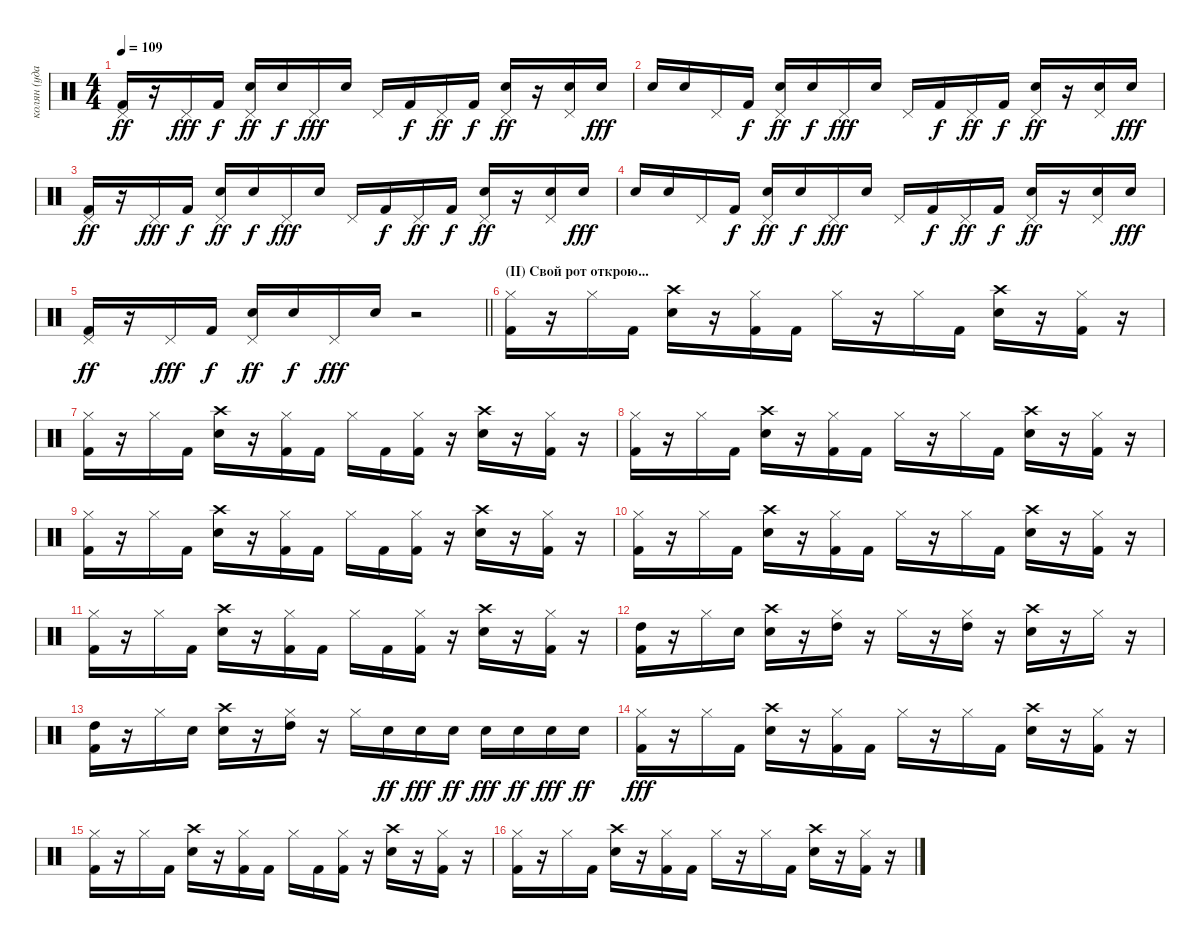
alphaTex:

\track ("колян (ударные) v2.0" "колян (уда") {instrument percussion}
\staff
\articulation defaults
\ts (4 4)
\tempo 109
\clef neutral
\ks c
("Pedal Hi-Hat (hit)" "Kick (hit) 2").16{dy ff} r.16 "Pedal Hi-Hat (hit)".16{dy fff} "Kick (hit) 2".16{dy f} ("Snare (hit) 2" "Pedal Hi-Hat (hit)").16{dy ff} "Snare (hit) 2".16{dy f} "Pedal Hi-Hat (hit)".16{dy fff} "Snare (hit) 2".16 "Pedal Hi-Hat (hit)".16 "Kick (hit) 2".16{dy f} "Pedal Hi-Hat (hit)".16{dy ff} "Kick (hit) 2".16{dy f} ("Snare (hit) 2" "Pedal Hi-Hat (hit)").16{dy ff} r.16 ("Snare (hit) 2" "Pedal Hi-Hat (hit)").16 "Snare (hit) 2".16{dy fff} |
"Snare (hit) 2".16 "Snare (hit) 2".16 "Pedal Hi-Hat (hit)".16 "Kick (hit) 2".16{dy f} ("Snare (hit) 2" "Pedal Hi-Hat (hit)").16{dy ff} "Snare (hit) 2".16{dy f} "Pedal Hi-Hat (hit)".16{dy fff} "Snare (hit) 2".16 "Pedal Hi-Hat (hit)".16 "Kick (hit) 2".16{dy f} "Pedal Hi-Hat (hit)".16{dy ff} "Kick (hit) 2".16{dy f} ("Snare (hit) 2" "Pedal Hi-Hat (hit)").16{dy ff} r.16 ("Snare (hit) 2" "Pedal Hi-Hat (hit)").16 "Snare (hit) 2".16{dy fff} |
("Pedal Hi-Hat (hit)" "Kick (hit) 2").16{dy ff} r.16 "Pedal Hi-Hat (hit)".16{dy fff} "Kick (hit) 2".16{dy f} ("Snare (hit) 2" "Pedal Hi-Hat (hit)").16{dy ff} "Snare (hit) 2".16{dy f} "Pedal Hi-Hat (hit)".16{dy fff} "Snare (hit) 2".16 "Pedal Hi-Hat (hit)".16 "Kick (hit) 2".16{dy f} "Pedal Hi-Hat (hit)".16{dy ff} "Kick (hit) 2".16{dy f} ("Snare (hit) 2" "Pedal Hi-Hat (hit)").16{dy ff} r.16 ("Snare (hit) 2" "Pedal Hi-Hat (hit)").16 "Snare (hit) 2".16{dy fff} |
"Snare (hit) 2".16 "Snare (hit) 2".16 "Pedal Hi-Hat (hit)".16 "Kick (hit) 2".16{dy f} ("Snare (hit) 2" "Pedal Hi-Hat (hit)").16{dy ff} "Snare (hit) 2".16{dy f} "Pedal Hi-Hat (hit)".16{dy fff} "Snare (hit) 2".16 "Pedal Hi-Hat (hit)".16 "Kick (hit) 2".16{dy f} "Pedal Hi-Hat (hit)".16{dy ff} "Kick (hit) 2".16{dy f} ("Snare (hit) 2" "Pedal Hi-Hat (hit)").16{dy ff} r.16 ("Snare (hit) 2" "Pedal Hi-Hat (hit)").16 "Snare (hit) 2".16{dy fff} |
\barLineRight lightlight
("Pedal Hi-Hat (hit)" "Kick (hit) 2").16{dy ff} r.16 "Pedal Hi-Hat (hit)".16{dy fff} "Kick (hit) 2".16{dy f} ("Snare (hit) 2" "Pedal Hi-Hat (hit)").16{dy ff} "Snare (hit) 2".16{dy f} "Pedal Hi-Hat (hit)".16{dy fff} "Snare (hit) 2".16 r.2 |
\section ("" "(II) Свой рот открою...")
("Hi-Hat (closed)" "Kick (hit) 2").16 r.16 "Hi-Hat (closed)".16 "Kick (hit) 2".16 ("Snare (hit) 2" "Crash high (hit)").16 r.16 ("Hi-Hat (closed)" "Kick (hit) 2").16 "Kick (hit) 2".16 "Hi-Hat (closed)".16 r.16 "Hi-Hat (closed)".16 "Kick (hit) 2".16 ("Snare (hit) 2" "Crash high (hit)").16 r.16 ("Hi-Hat (closed)" "Kick (hit) 2").16 r.16 |
("Hi-Hat (closed)" "Kick (hit) 2").16 r.16 "Hi-Hat (closed)".16 "Kick (hit) 2".16 ("Snare (hit) 2" "Crash high (hit)").16 r.16 ("Hi-Hat (closed)" "Kick (hit) 2").16 "Kick (hit) 2".16 "Hi-Hat (closed)".16 "Kick (hit) 2".16 ("Hi-Hat (closed)" "Kick (hit) 2").16 r.16 ("Snare (hit) 2" "Crash high (hit)").16 r.16 ("Hi-Hat (closed)" "Kick (hit) 2").16 r.16 |
("Hi-Hat (closed)" "Kick (hit) 2").16 r.16 "Hi-Hat (closed)".16 "Kick (hit) 2".16 ("Snare (hit) 2" "Crash high (hit)").16 r.16 ("Hi-Hat (closed)" "Kick (hit) 2").16 "Kick (hit) 2".16 "Hi-Hat (closed)".16 r.16 "Hi-Hat (closed)".16 "Kick (hit) 2".16 ("Snare (hit) 2" "Crash high (hit)").16 r.16 ("Hi-Hat (closed)" "Kick (hit) 2").16 r.16 |
("Hi-Hat (closed)" "Kick (hit) 2").16 r.16 "Hi-Hat (closed)".16 "Kick (hit) 2".16 ("Snare (hit) 2" "Crash high (hit)").16 r.16 ("Hi-Hat (closed)" "Kick (hit) 2").16 "Kick (hit) 2".16 "Hi-Hat (closed)".16 "Kick (hit) 2".16 ("Hi-Hat (closed)" "Kick (hit) 2").16 r.16 ("Snare (hit) 2" "Crash high (hit)").16 r.16 ("Hi-Hat (closed)" "Kick (hit) 2").16 r.16 |
("Hi-Hat (closed)" "Kick (hit) 2").16 r.16 "Hi-Hat (closed)".16 "Kick (hit) 2".16 ("Snare (hit) 2" "Crash high (hit)").16 r.16 ("Hi-Hat (closed)" "Kick (hit) 2").16 "Kick (hit) 2".16 "Hi-Hat (closed)".16 r.16 "Hi-Hat (closed)".16 "Kick (hit) 2".16 ("Snare (hit) 2" "Crash high (hit)").16 r.16 ("Hi-Hat (closed)" "Kick (hit) 2").16 r.16 |
("Hi-Hat (closed)" "Kick (hit) 2").16 r.16 "Hi-Hat (closed)".16 "Kick (hit) 2".16 ("Snare (hit) 2" "Crash high (hit)").16 r.16 ("Hi-Hat (closed)" "Kick (hit) 2").16 "Kick (hit) 2".16 "Hi-Hat (closed)".16 "Kick (hit) 2".16 ("Hi-Hat (closed)" "Kick (hit) 2").16 r.16 ("Snare (hit) 2" "Crash high (hit)").16 r.16 ("Hi-Hat (closed)" "Kick (hit) 2").16 r.16 |
("High Tom (hit)" "Kick (hit) 2").16 r.16 "Hi-Hat (closed)".16 "Electric Snare (hit)".16 ("Electric Snare (hit)" "Crash high (hit)").16 r.16 ("Hi-Hat (closed)" "High Tom (hit)").16 r.16 "Hi-Hat (closed)".16 r.16 ("Hi-Hat (closed)" "High Tom (hit)").16 r.16 ("Electric Snare (hit)" "Crash high (hit)").16 r.16 "Hi-Hat (closed)".16 r.16 |
("High Tom (hit)" "Kick (hit) 2").16 r.16 "Hi-Hat (closed)".16 "Electric Snare (hit)".16 ("Electric Snare (hit)" "Crash high (hit)").16 r.16 ("Hi-Hat (closed)" "High Tom (hit)").16 r.16 "Hi-Hat (closed)".16 "Electric Snare (hit)".16{dy ff} "Electric Snare (hit)".16{dy fff} "Electric Snare (hit)".16{dy ff} "Electric Snare (hit)".16{dy fff} "Electric Snare (hit)".16{dy ff} "Electric Snare (hit)".16{dy fff} "Electric Snare (hit)".16{dy ff} |
("Hi-Hat (closed)" "Kick (hit) 2").16{dy fff} r.16 "Hi-Hat (closed)".16 "Kick (hit) 2".16 ("Snare (hit) 2" "Crash high (hit)").16 r.16 ("Hi-Hat (closed)" "Kick (hit) 2").16 "Kick (hit) 2".16 "Hi-Hat (closed)".16 r.16 "Hi-Hat (closed)".16 "Kick (hit) 2".16 ("Snare (hit) 2" "Crash high (hit)").16 r.16 ("Hi-Hat (closed)" "Kick (hit) 2").16 r.16 |
("Hi-Hat (closed)" "Kick (hit) 2").16 r.16 "Hi-Hat (closed)".16 "Kick (hit) 2".16 ("Snare (hit) 2" "Crash high (hit)").16 r.16 ("Hi-Hat (closed)" "Kick (hit) 2").16 "Kick (hit) 2".16 "Hi-Hat (closed)".16 "Kick (hit) 2".16 ("Hi-Hat (closed)" "Kick (hit) 2").16 r.16 ("Snare (hit) 2" "Crash high (hit)").16 r.16 ("Hi-Hat (closed)" "Kick (hit) 2").16 r.16 |
("Hi-Hat (closed)" "Kick (hit) 2").16 r.16 "Hi-Hat (closed)".16 "Kick (hit) 2".16 ("Snare (hit) 2" "Crash high (hit)").16 r.16 ("Hi-Hat (closed)" "Kick (hit) 2").16 "Kick (hit) 2".16 "Hi-Hat (closed)".16 r.16 "Hi-Hat (closed)".16 "Kick (hit) 2".16 ("Snare (hit) 2" "Crash high (hit)").16 r.16 ("Hi-Hat (closed)" "Kick (hit) 2").16 r.16
